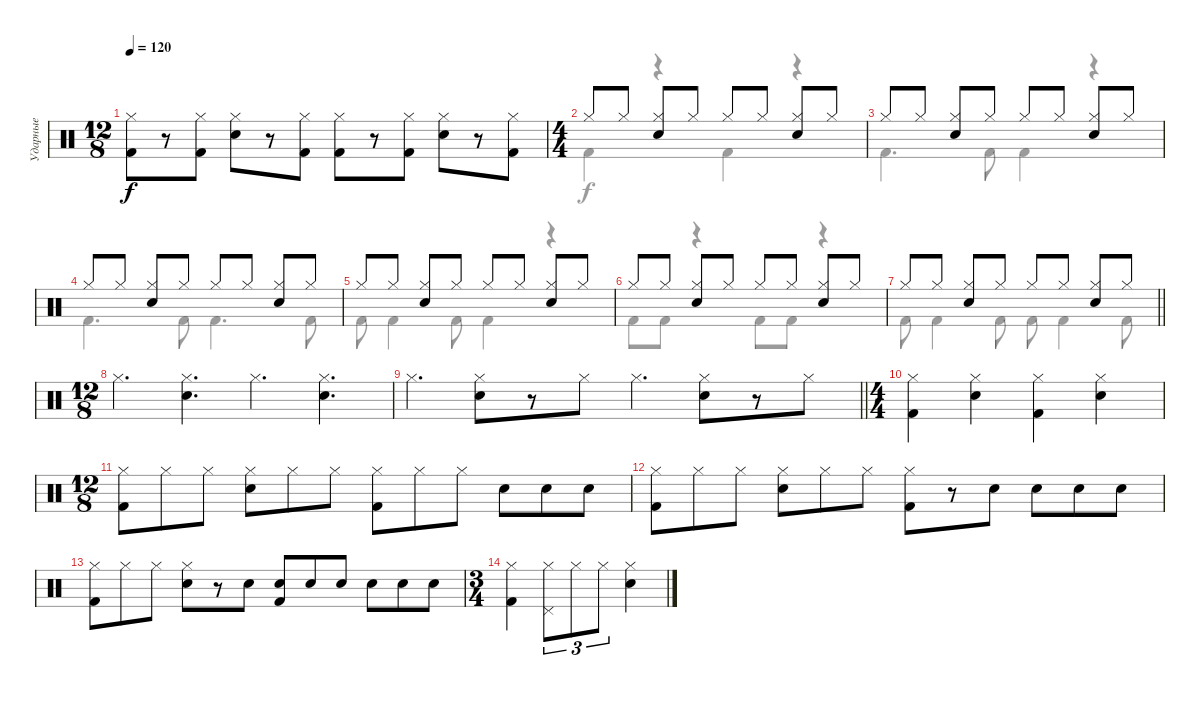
\track ("Ударные" "Ударные") {instrument percussion}
\staff {score}
\articulation defaults
\voice
\ts (12 8)
\tempo 120
\clef neutral
\ks c
("Hi-Hat (closed)" "Kick (hit) 2").8{dy f} r.8 ("Hi-Hat (closed)" "Kick (hit) 2").8 ("Hi-Hat (closed)" "Electric Snare (hit)").8 r.8 ("Hi-Hat (closed)" "Kick (hit) 2").8 ("Hi-Hat (closed)" "Kick (hit) 2").8 r.8 ("Hi-Hat (closed)" "Kick (hit) 2").8 ("Hi-Hat (closed)" "Electric Snare (hit)").8 r.8 ("Hi-Hat (closed)" "Kick (hit) 2").8 |
\ts (4 4)
"Hi-Hat (closed)".8 "Hi-Hat (closed)".8 ("Hi-Hat (closed)" "Electric Snare (hit)").8 "Hi-Hat (closed)".8 "Hi-Hat (closed)".8 "Hi-Hat (closed)".8 ("Hi-Hat (closed)" "Electric Snare (hit)").8 "Hi-Hat (closed)".8 |
"Hi-Hat (closed)".8 "Hi-Hat (closed)".8 ("Hi-Hat (closed)" "Electric Snare (hit)").8 "Hi-Hat (closed)".8 "Hi-Hat (closed)".8 "Hi-Hat (closed)".8 ("Hi-Hat (closed)" "Electric Snare (hit)").8 "Hi-Hat (closed)".8 |
"Hi-Hat (closed)".8 "Hi-Hat (closed)".8 ("Hi-Hat (closed)" "Electric Snare (hit)").8 "Hi-Hat (closed)".8 "Hi-Hat (closed)".8 "Hi-Hat (closed)".8 ("Hi-Hat (closed)" "Electric Snare (hit)").8 "Hi-Hat (closed)".8 |
"Hi-Hat (closed)".8 "Hi-Hat (closed)".8 ("Hi-Hat (closed)" "Electric Snare (hit)").8 "Hi-Hat (closed)".8 "Hi-Hat (closed)".8 "Hi-Hat (closed)".8 ("Hi-Hat (closed)" "Electric Snare (hit)").8 "Hi-Hat (closed)".8 |
"Hi-Hat (closed)".8 "Hi-Hat (closed)".8 ("Hi-Hat (closed)" "Electric Snare (hit)").8 "Hi-Hat (closed)".8 "Hi-Hat (closed)".8 "Hi-Hat (closed)".8 ("Hi-Hat (closed)" "Electric Snare (hit)").8 "Hi-Hat (closed)".8 |
\barLineRight lightlight "Hi-Hat (closed)".8 "Hi-Hat (closed)".8
("Hi-Hat (closed)" "Electric Snare (hit)").8 "Hi-Hat (closed)".8 "Hi-Hat (closed)".8 "Hi-Hat (closed)".8 ("Hi-Hat (closed)" "Electric Snare (hit)").8 "Hi-Hat (closed)".8 |
\ts (12 8)
"Hi-Hat (closed)".4{d} ("Hi-Hat (closed)" "Electric Snare (hit)").4{d} "Hi-Hat (closed)".4{d} ("Hi-Hat (closed)" "Electric Snare (hit)").4{d} |
\barLineRight lightlight "Hi-Hat (closed)".4{d}
("Hi-Hat (closed)" "Electric Snare (hit)").8 r.8 "Hi-Hat (closed)".8 "Hi-Hat (closed)".4{d} ("Hi-Hat (closed)" "Electric Snare (hit)").8 r.8 "Hi-Hat (closed)".8 |
\ts (4 4)
("Hi-Hat (closed)" "Kick (hit) 2").4 ("Hi-Hat (closed)" "Electric Snare (hit)").4 ("Hi-Hat (closed)" "Kick (hit) 2").4 ("Hi-Hat (closed)" "Electric Snare (hit)").4 |
\ts (12 8)
("Hi-Hat (closed)" "Kick (hit) 2").8 "Hi-Hat (closed)".8 "Hi-Hat (closed)".8 ("Hi-Hat (closed)" "Electric Snare (hit)").8 "Hi-Hat (closed)".8 "Hi-Hat (closed)".8 ("Hi-Hat (closed)" "Kick (hit) 2").8 "Hi-Hat (closed)".8 "Hi-Hat (closed)".8 "Electric Snare (hit)".8 "Electric Snare (hit)".8 "Electric Snare (hit)".8 |
("Hi-Hat (closed)" "Kick (hit) 2").8 "Hi-Hat (closed)".8 "Hi-Hat (closed)".8 ("Hi-Hat (closed)" "Electric Snare (hit)").8 "Hi-Hat (closed)".8 "Hi-Hat (closed)".8 ("Hi-Hat (closed)" "Kick (hit) 2").8 r.8 "Electric Snare (hit)".8 "Electric Snare (hit)".8 "Electric Snare (hit)".8 "Electric Snare (hit)".8 |
("Hi-Hat (closed)" "Kick (hit) 2").8 "Hi-Hat (closed)".8 "Hi-Hat (closed)".8 ("Hi-Hat (closed)" "Electric Snare (hit)").8 r.8 "Electric Snare (hit)".8 ("Kick (hit) 2" "Electric Snare (hit)").8 "Electric Snare (hit)".8 "Electric Snare (hit)".8 "Electric Snare (hit)".8 "Electric Snare (hit)".8 "Electric Snare (hit)".8 |
\ts (3 4)
("Hi-Hat (closed)" "Kick (hit) 2").4 ("Pedal Hi-Hat (hit)" "Hi-Hat (closed)").8{tu (3 2)} "Hi-Hat (closed)".8{tu (3 2)} "Hi-Hat (closed)".8{tu (3 2)} ("Hi-Hat (closed)" "Electric Snare (hit)").4
\voice
\clef neutral
\ottava regular
\simile none
\ks c
|
"Kick (hit) 2".4 r.4 "Kick (hit) 2".4 r.4 |
"Kick (hit) 2".4{d} "Kick (hit) 2".8 "Kick (hit) 2".4 r.4 |
"Kick (hit) 2".4{d} "Kick (hit) 2".8 "Kick (hit) 2".4{d} "Kick (hit) 2".8 |
"Kick (hit) 2".8 "Kick (hit) 2".4 "Kick (hit) 2".8 "Kick (hit) 2".4 r.4 |
"Kick (hit) 2".8 "Kick (hit) 2".8 r.4 "Kick (hit) 2".8 "Kick (hit) 2".8 r.4 |
\barLineRight lightlight "Kick (hit) 2".8 "Kick (hit) 2".4 "Kick (hit) 2".8 "Kick (hit) 2".8 "Kick (hit) 2".4 "Kick (hit) 2".8
|
|
\barLineRight lightlight
|
|
|
|
|
